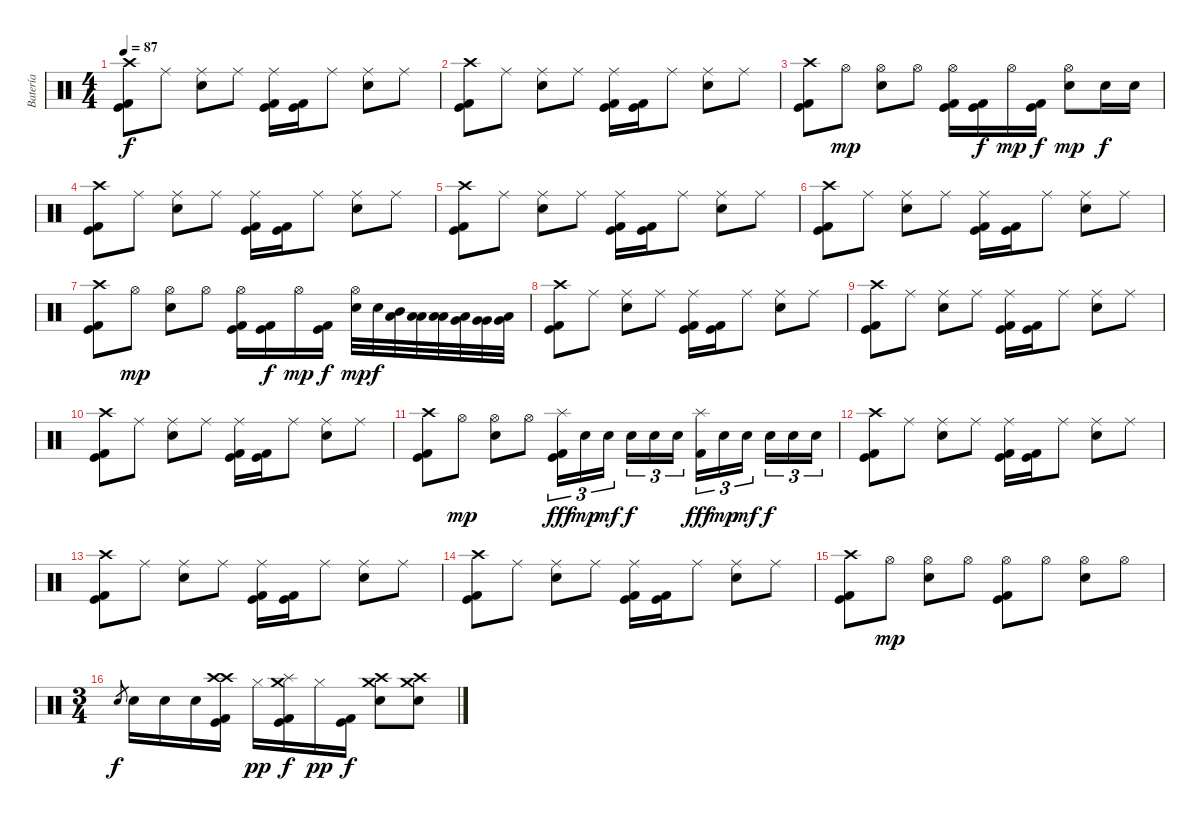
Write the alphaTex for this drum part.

\track ("Batería" "Batería") {instrument percussion}
\staff {score}
\articulation defaults
\ts (4 4)
\tempo 87
\clef neutral
\ks c
("Crash high (hit)" "Kick (hit)" "Kick (hit) 2").8{dy f} "Ride (middle)".8 ("Ride (middle)" "Electric Snare (hit)").8 "Ride (middle)".8 ("Ride (middle)" "Kick (hit)" "Kick (hit) 2").16 ("Kick (hit)" "Kick (hit) 2").16 "Ride (middle)".8 ("Ride (middle)" "Electric Snare (hit)").8 "Ride (middle)".8 |
("Crash high (hit)" "Kick (hit)" "Kick (hit) 2").8 "Ride (middle)".8 ("Ride (middle)" "Electric Snare (hit)").8 "Ride (middle)".8 ("Ride (middle)" "Kick (hit)" "Kick (hit) 2").16 ("Kick (hit)" "Kick (hit) 2").16 "Ride (middle)".8 ("Ride (middle)" "Electric Snare (hit)").8 "Ride (middle)".8 |
("Crash high (hit)" "Kick (hit)" "Kick (hit) 2").8 "Hi-Hat (open)".8{dy mp} ("Hi-Hat (open)" "Electric Snare (hit)").8 "Hi-Hat (open)".8 ("Hi-Hat (open)" "Kick (hit)" "Kick (hit) 2").16 ("Kick (hit)" "Kick (hit) 2").16{dy f} "Hi-Hat (open)".16{dy mp} ("Kick (hit)" "Kick (hit) 2").16{dy f} ("Hi-Hat (open)" "Electric Snare (hit)").8{dy mp} "Electric Snare (hit)".16{dy f} "Electric Snare (hit)".16 |
("Crash high (hit)" "Kick (hit)" "Kick (hit) 2").8 "Ride (middle)".8 ("Ride (middle)" "Electric Snare (hit)").8 "Ride (middle)".8 ("Ride (middle)" "Kick (hit)" "Kick (hit) 2").16 ("Kick (hit)" "Kick (hit) 2").16 "Ride (middle)".8 ("Ride (middle)" "Electric Snare (hit)").8 "Ride (middle)".8 |
("Crash high (hit)" "Kick (hit)" "Kick (hit) 2").8 "Ride (middle)".8 ("Ride (middle)" "Electric Snare (hit)").8 "Ride (middle)".8 ("Ride (middle)" "Kick (hit)" "Kick (hit) 2").16 ("Kick (hit)" "Kick (hit) 2").16 "Ride (middle)".8 ("Ride (middle)" "Electric Snare (hit)").8 "Ride (middle)".8 |
("Crash high (hit)" "Kick (hit)" "Kick (hit) 2").8 "Ride (middle)".8 ("Ride (middle)" "Electric Snare (hit)").8 "Ride (middle)".8 ("Ride (middle)" "Kick (hit)" "Kick (hit) 2").16 ("Kick (hit)" "Kick (hit) 2").16 "Ride (middle)".8 ("Ride (middle)" "Electric Snare (hit)").8 "Ride (middle)".8 |
("Crash high (hit)" "Kick (hit)" "Kick (hit) 2").8 "Hi-Hat (open)".8{dy mp} ("Hi-Hat (open)" "Electric Snare (hit)").8 "Hi-Hat (open)".8 ("Hi-Hat (open)" "Kick (hit)" "Kick (hit) 2").16 ("Kick (hit)" "Kick (hit) 2").16{dy f} "Hi-Hat (open)".16{dy mp} ("Kick (hit)" "Kick (hit) 2").16{dy f} ("Hi-Hat (open)" "Electric Snare (hit)").32{dy mp} "Electric Snare (hit)".32{dy f} ("Mid Tom (hit)" "Low Tom (hit)").32 ("Low Tom (hit)" "Low Tom (hit)").32 ("Low Tom (hit)" "Low Tom (hit)").32 ("Very Low Tom (hit)" "Low Tom (hit)").32 ("Very Low Tom (hit)" "Very Low Tom (hit)").32 ("Very Low Tom (hit)" "Low Floor Tom (hit)").32 |
("Crash high (hit)" "Kick (hit)" "Kick (hit) 2").8 "Ride (middle)".8 ("Ride (middle)" "Electric Snare (hit)").8 "Ride (middle)".8 ("Ride (middle)" "Kick (hit)" "Kick (hit) 2").16 ("Kick (hit)" "Kick (hit) 2").16 "Ride (middle)".8 ("Ride (middle)" "Electric Snare (hit)").8 "Ride (middle)".8 |
("Crash high (hit)" "Kick (hit)" "Kick (hit) 2").8 "Ride (middle)".8 ("Ride (middle)" "Electric Snare (hit)").8 "Ride (middle)".8 ("Ride (middle)" "Kick (hit)" "Kick (hit) 2").16 ("Kick (hit)" "Kick (hit) 2").16 "Ride (middle)".8 ("Ride (middle)" "Electric Snare (hit)").8 "Ride (middle)".8 |
("Crash high (hit)" "Kick (hit)" "Kick (hit) 2").8 "Ride (middle)".8 ("Ride (middle)" "Electric Snare (hit)").8 "Ride (middle)".8 ("Ride (middle)" "Kick (hit)" "Kick (hit) 2").16 ("Kick (hit)" "Kick (hit) 2").16 "Ride (middle)".8 ("Ride (middle)" "Electric Snare (hit)").8 "Ride (middle)".8 |
("Crash high (hit)" "Kick (hit)" "Kick (hit) 2").8 "Hi-Hat (open)".8{dy mp} ("Hi-Hat (open)" "Electric Snare (hit)").8 "Hi-Hat (open)".8 ("Splash (hit)" "Kick (hit)" "Kick (hit) 2").16{tu (3 2) dy fff} "Electric Snare (hit)".16{tu (3 2) dy mp} "Electric Snare (hit)".16{tu (3 2) dy mf} "Electric Snare (hit)".16{tu (3 2) dy f} "Electric Snare (hit)".16{tu (3 2)} "Electric Snare (hit)".16{tu (3 2)} ("Splash (hit)" "Kick (hit) 2").16{tu (3 2) dy fff} "Electric Snare (hit)".16{tu (3 2) dy mp} "Electric Snare (hit)".16{tu (3 2) dy mf} "Electric Snare (hit)".16{tu (3 2) dy f} "Electric Snare (hit)".16{tu (3 2)} "Electric Snare (hit)".16{tu (3 2)} |
("Crash high (hit)" "Kick (hit)" "Kick (hit) 2").8 "Ride (middle)".8 ("Ride (middle)" "Electric Snare (hit)").8 "Ride (middle)".8 ("Ride (middle)" "Kick (hit)" "Kick (hit) 2").16 ("Kick (hit)" "Kick (hit) 2").16 "Ride (middle)".8 ("Ride (middle)" "Electric Snare (hit)").8 "Ride (middle)".8 |
("Crash high (hit)" "Kick (hit)" "Kick (hit) 2").8 "Ride (middle)".8 ("Ride (middle)" "Electric Snare (hit)").8 "Ride (middle)".8 ("Ride (middle)" "Kick (hit)" "Kick (hit) 2").16 ("Kick (hit)" "Kick (hit) 2").16 "Ride (middle)".8 ("Ride (middle)" "Electric Snare (hit)").8 "Ride (middle)".8 |
("Crash high (hit)" "Kick (hit)" "Kick (hit) 2").8 "Ride (middle)".8 ("Ride (middle)" "Electric Snare (hit)").8 "Ride (middle)".8 ("Ride (middle)" "Kick (hit)" "Kick (hit) 2").16 ("Kick (hit)" "Kick (hit) 2").16 "Ride (middle)".8 ("Ride (middle)" "Electric Snare (hit)").8 "Ride (middle)".8 |
("Crash high (hit)" "Kick (hit)" "Kick (hit) 2").8 "Hi-Hat (open)".8{dy mp} ("Hi-Hat (open)" "Electric Snare (hit)").8 "Hi-Hat (open)".8 ("Hi-Hat (open)" "Kick (hit)" "Kick (hit) 2").8 "Hi-Hat (open)".8 ("Hi-Hat (open)" "Electric Snare (hit)").8 "Hi-Hat (open)".8 |
\ts (3 4)
"Electric Snare (hit)".8{gr dy f} "Electric Snare (hit)".16 "Electric Snare (hit)".16 "Electric Snare (hit)".16 ("Crash high (hit)" "Crash high (hit)" "Kick (hit)" "Kick (hit) 2").16 "Hi-Hat (closed)".16{dy pp} ("Crash medium (hit)" "Splash (hit)" "Kick (hit)" "Kick (hit) 2").16{dy f} "Hi-Hat (closed)".16{dy pp} ("Kick (hit)" "Kick (hit) 2").16{dy f} ("Crash high (hit)" "Crash medium (hit)" "Electric Snare (hit)").8 ("Crash high (hit)" "Crash medium (hit)" "Electric Snare (hit)").8
